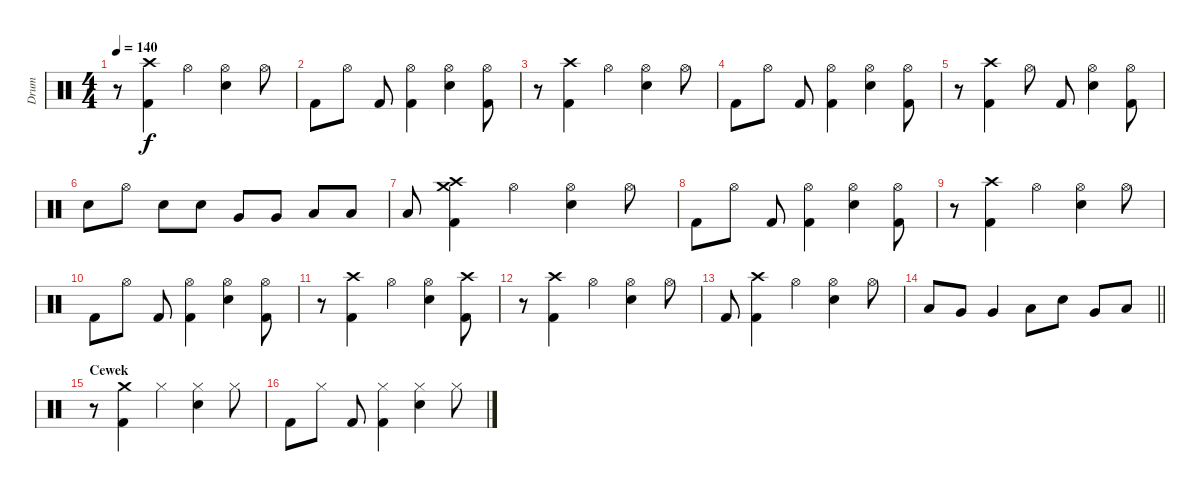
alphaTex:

\track ("Drum" "Drum") {instrument percussion}
\staff {score}
\articulation defaults
\ts (4 4)
\tempo 140
\clef neutral
\ks c
r.8{dy f} ("Crash high (hit)" "Kick (hit) 2").4 "Hi-Hat (open)".4 ("Electric Snare (hit)" "Hi-Hat (open)").4 "Hi-Hat (open)".8 |
"Kick (hit) 2".8 "Hi-Hat (open)".8 "Kick (hit) 2".8 ("Hi-Hat (open)" "Kick (hit) 2").4 ("Electric Snare (hit)" "Hi-Hat (open)").4 ("Hi-Hat (open)" "Kick (hit) 2").8 |
r.8 ("Crash high (hit)" "Kick (hit) 2").4 "Hi-Hat (open)".4 ("Electric Snare (hit)" "Hi-Hat (open)").4 "Hi-Hat (open)".8 |
"Kick (hit) 2".8 "Hi-Hat (open)".8 "Kick (hit) 2".8 ("Hi-Hat (open)" "Kick (hit) 2").4 ("Electric Snare (hit)" "Hi-Hat (open)").4 ("Hi-Hat (open)" "Kick (hit) 2").8 |
r.8 ("Kick (hit) 2" "Crash high (hit)").4 "Hi-Hat (open)".8 "Kick (hit) 2".8 ("Hi-Hat (open)" "Electric Snare (hit)").4 ("Hi-Hat (open)" "Kick (hit) 2").8 |
"Electric Snare (hit)".8 "Hi-Hat (open)".8 "Electric Snare (hit)".8 "Electric Snare (hit)".8 "Very Low Tom (hit)".8 "Very Low Tom (hit)".8 "Low Floor Tom (hit)".8 "Low Floor Tom (hit)".8 |
"Low Floor Tom (hit)".8 ("Kick (hit) 2" "Crash medium (hit)" "Crash high (hit)").4 "Hi-Hat (open)".4 ("Hi-Hat (open)" "Electric Snare (hit)").4 "Hi-Hat (open)".8 |
"Kick (hit) 2".8 "Hi-Hat (open)".8 "Kick (hit) 2".8 ("Hi-Hat (open)" "Kick (hit) 2").4 ("Electric Snare (hit)" "Hi-Hat (open)").4 ("Hi-Hat (open)" "Kick (hit) 2").8 |
r.8 ("Crash high (hit)" "Kick (hit) 2").4 "Hi-Hat (open)".4 ("Electric Snare (hit)" "Hi-Hat (open)").4 "Hi-Hat (open)".8 |
"Kick (hit) 2".8 "Hi-Hat (open)".8 "Kick (hit) 2".8 ("Hi-Hat (open)" "Kick (hit) 2").4 ("Electric Snare (hit)" "Hi-Hat (open)").4 ("Hi-Hat (open)" "Kick (hit) 2").8 |
r.8 ("Crash high (hit)" "Kick (hit) 2").4 "Hi-Hat (open)".4 ("Electric Snare (hit)" "Hi-Hat (open)").4 ("Crash high (hit)" "Kick (hit) 2").8 |
r.8 ("Crash high (hit)" "Kick (hit) 2").4 "Hi-Hat (open)".4 ("Hi-Hat (open)" "Electric Snare (hit)").4 "Hi-Hat (open)".8 |
"Kick (hit) 2".8 ("Crash high (hit)" "Kick (hit) 2").4 "Hi-Hat (open)".4 ("Hi-Hat (open)" "Electric Snare (hit)").4 "Hi-Hat (open)".8 |
\barLineRight lightlight "Low Tom (hit)".8 "Very Low Tom (hit)".8 "Very Low Tom (hit)".4 "Low Floor Tom (hit)".8 "Electric Snare (hit)".8 "Very Low Tom (hit)".8 "Low Floor Tom (hit)".8
|
\section ("" "Cewek")
r.8 ("Kick (hit) 2" "Crash medium (hit)").4 "Hi-Hat (closed)".4 ("Hi-Hat (closed)" "Electric Snare (hit)").4 "Hi-Hat (closed)".8 |
"Kick (hit) 2".8 "Hi-Hat (closed)".8 "Kick (hit) 2".8 ("Hi-Hat (closed)" "Kick (hit) 2").4 ("Hi-Hat (closed)" "Electric Snare (hit)").4 "Hi-Hat (closed)".8
